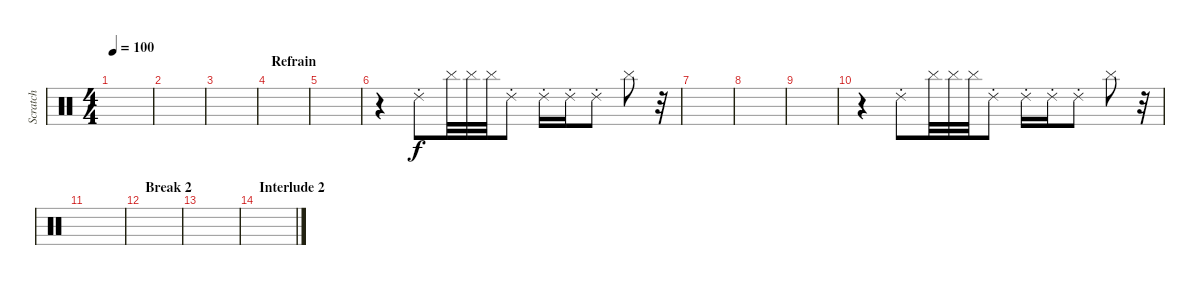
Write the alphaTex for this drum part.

\track ("Scratch" "Scratch") {instrument percussion}
\staff {score}
\articulation defaults
\ts (4 4)
\tempo 100
\clef neutral
\ks c
|
|
|
\section ("" "Refrain")
|
|
r.4 "Ride (choke) 2".8 "Cymbal (hit)".32 "Cymbal (hit)".32 "Cymbal (hit)".32 "Ride (choke) 2".8 "Ride (choke) 2".16 "Ride (choke) 2".16 "Ride (choke) 2".8 "Cymbal (hit)".8 r.32 |
|
|
|
r.4 "Ride (choke) 2".8 "Cymbal (hit)".32 "Cymbal (hit)".32 "Cymbal (hit)".32 "Ride (choke) 2".8 "Ride (choke) 2".16 "Ride (choke) 2".16 "Ride (choke) 2".8 "Cymbal (hit)".8 r.32 |
|
\section ("" "Break 2")
|
|
\section ("" "Interlude 2")
